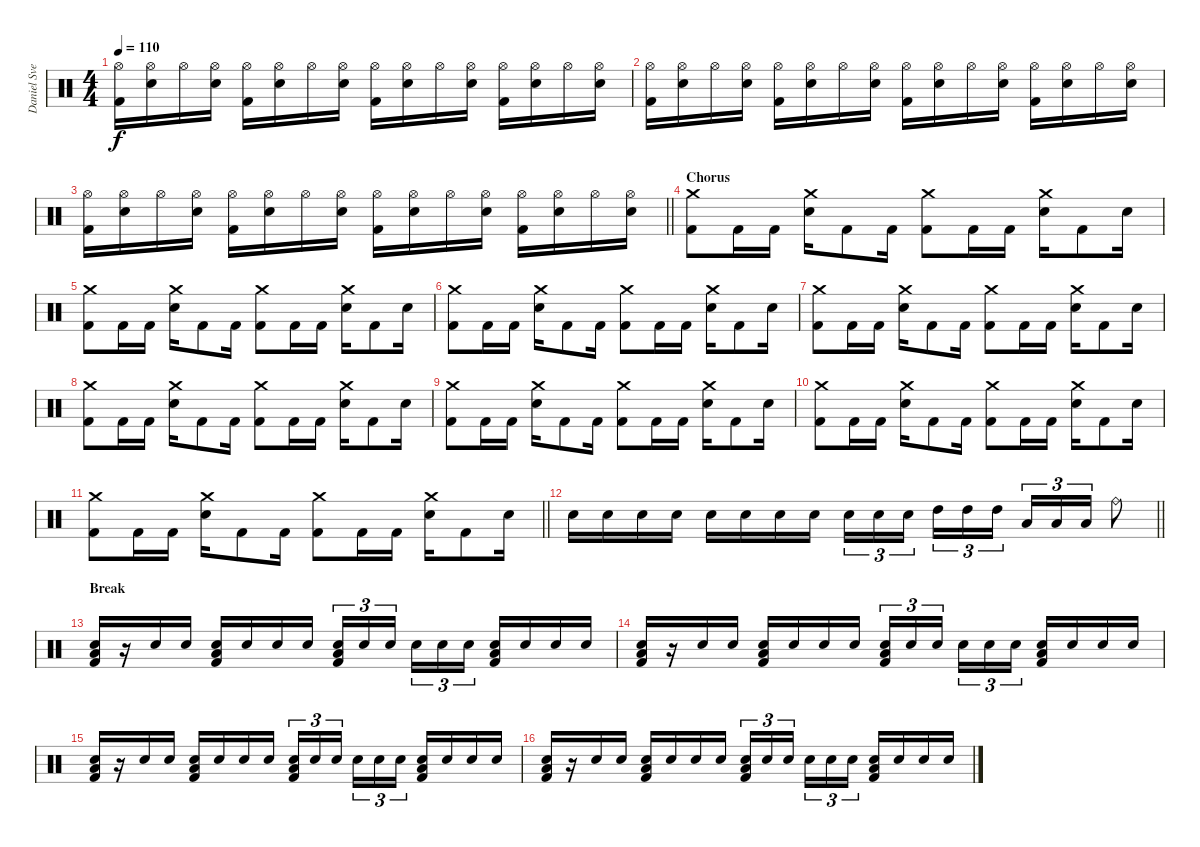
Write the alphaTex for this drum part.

\track ("Daniel Svennson" "Daniel Sve") {instrument percussion}
\staff {score}
\articulation defaults
\ts (4 4)
\tempo 110
\clef neutral
\ks c
("Hi-Hat (open)" "Kick (hit) 2").16{dy f} ("Hi-Hat (open)" "Snare (hit) 2").16 "Hi-Hat (open)".16 ("Hi-Hat (open)" "Snare (hit) 2").16 ("Hi-Hat (open)" "Kick (hit) 2").16 ("Hi-Hat (open)" "Snare (hit) 2").16 "Hi-Hat (open)".16 ("Hi-Hat (open)" "Snare (hit) 2").16 ("Hi-Hat (open)" "Kick (hit) 2").16 ("Hi-Hat (open)" "Snare (hit) 2").16 "Hi-Hat (open)".16 ("Hi-Hat (open)" "Snare (hit) 2").16 ("Hi-Hat (open)" "Kick (hit) 2").16 ("Hi-Hat (open)" "Snare (hit) 2").16 "Hi-Hat (open)".16 ("Hi-Hat (open)" "Snare (hit) 2").16 |
("Hi-Hat (open)" "Kick (hit) 2").16 ("Hi-Hat (open)" "Snare (hit) 2").16 "Hi-Hat (open)".16 ("Hi-Hat (open)" "Snare (hit) 2").16 ("Hi-Hat (open)" "Kick (hit) 2").16 ("Hi-Hat (open)" "Snare (hit) 2").16 "Hi-Hat (open)".16 ("Hi-Hat (open)" "Snare (hit) 2").16 ("Hi-Hat (open)" "Kick (hit) 2").16 ("Hi-Hat (open)" "Snare (hit) 2").16 "Hi-Hat (open)".16 ("Hi-Hat (open)" "Snare (hit) 2").16 ("Hi-Hat (open)" "Kick (hit) 2").16 ("Hi-Hat (open)" "Snare (hit) 2").16 "Hi-Hat (open)".16 ("Hi-Hat (open)" "Snare (hit) 2").16 |
\barLineRight lightlight
("Hi-Hat (open)" "Kick (hit) 2").16 ("Hi-Hat (open)" "Snare (hit) 2").16 "Hi-Hat (open)".16 ("Hi-Hat (open)" "Snare (hit) 2").16 ("Hi-Hat (open)" "Kick (hit) 2").16 ("Hi-Hat (open)" "Snare (hit) 2").16 "Hi-Hat (open)".16 ("Hi-Hat (open)" "Snare (hit) 2").16 ("Hi-Hat (open)" "Kick (hit) 2").16 ("Hi-Hat (open)" "Snare (hit) 2").16 "Hi-Hat (open)".16 ("Hi-Hat (open)" "Snare (hit) 2").16 ("Hi-Hat (open)" "Kick (hit) 2").16 ("Hi-Hat (open)" "Snare (hit) 2").16 "Hi-Hat (open)".16 ("Hi-Hat (open)" "Snare (hit) 2").16 |
\section ("" "Chorus")
("Kick (hit) 2" "Crash medium (hit)").8 "Kick (hit) 2".16 "Kick (hit) 2".16 ("Snare (hit) 2" "Crash medium (hit)").16 "Kick (hit) 2".8 "Kick (hit) 2".16 ("Kick (hit) 2" "Crash medium (hit)").8 "Kick (hit) 2".16 "Kick (hit) 2".16 ("Snare (hit) 2" "Crash medium (hit)").16 "Kick (hit) 2".8 "Snare (hit) 2".16 |
("Kick (hit) 2" "Crash medium (hit)").8 "Kick (hit) 2".16 "Kick (hit) 2".16 ("Snare (hit) 2" "Crash medium (hit)").16 "Kick (hit) 2".8 "Kick (hit) 2".16 ("Kick (hit) 2" "Crash medium (hit)").8 "Kick (hit) 2".16 "Kick (hit) 2".16 ("Snare (hit) 2" "Crash medium (hit)").16 "Kick (hit) 2".8 "Snare (hit) 2".16 |
("Kick (hit) 2" "Crash medium (hit)").8 "Kick (hit) 2".16 "Kick (hit) 2".16 ("Snare (hit) 2" "Crash medium (hit)").16 "Kick (hit) 2".8 "Kick (hit) 2".16 ("Kick (hit) 2" "Crash medium (hit)").8 "Kick (hit) 2".16 "Kick (hit) 2".16 ("Snare (hit) 2" "Crash medium (hit)").16 "Kick (hit) 2".8 "Snare (hit) 2".16 |
("Kick (hit) 2" "Crash medium (hit)").8 "Kick (hit) 2".16 "Kick (hit) 2".16 ("Snare (hit) 2" "Crash medium (hit)").16 "Kick (hit) 2".8 "Kick (hit) 2".16 ("Kick (hit) 2" "Crash medium (hit)").8 "Kick (hit) 2".16 "Kick (hit) 2".16 ("Snare (hit) 2" "Crash medium (hit)").16 "Kick (hit) 2".8 "Snare (hit) 2".16 |
("Kick (hit) 2" "Crash medium (hit)").8 "Kick (hit) 2".16 "Kick (hit) 2".16 ("Snare (hit) 2" "Crash medium (hit)").16 "Kick (hit) 2".8 "Kick (hit) 2".16 ("Kick (hit) 2" "Crash medium (hit)").8 "Kick (hit) 2".16 "Kick (hit) 2".16 ("Snare (hit) 2" "Crash medium (hit)").16 "Kick (hit) 2".8 "Snare (hit) 2".16 |
("Kick (hit) 2" "Crash medium (hit)").8 "Kick (hit) 2".16 "Kick (hit) 2".16 ("Snare (hit) 2" "Crash medium (hit)").16 "Kick (hit) 2".8 "Kick (hit) 2".16 ("Kick (hit) 2" "Crash medium (hit)").8 "Kick (hit) 2".16 "Kick (hit) 2".16 ("Snare (hit) 2" "Crash medium (hit)").16 "Kick (hit) 2".8 "Snare (hit) 2".16 |
("Kick (hit) 2" "Crash medium (hit)").8 "Kick (hit) 2".16 "Kick (hit) 2".16 ("Snare (hit) 2" "Crash medium (hit)").16 "Kick (hit) 2".8 "Kick (hit) 2".16 ("Kick (hit) 2" "Crash medium (hit)").8 "Kick (hit) 2".16 "Kick (hit) 2".16 ("Snare (hit) 2" "Crash medium (hit)").16 "Kick (hit) 2".8 "Snare (hit) 2".16 |
\barLineRight lightlight
("Kick (hit) 2" "Crash medium (hit)").8 "Kick (hit) 2".16 "Kick (hit) 2".16 ("Snare (hit) 2" "Crash medium (hit)").16 "Kick (hit) 2".8 "Kick (hit) 2".16 ("Kick (hit) 2" "Crash medium (hit)").8 "Kick (hit) 2".16 "Kick (hit) 2".16 ("Snare (hit) 2" "Crash medium (hit)").16 "Kick (hit) 2".8 "Snare (hit) 2".16 |
\section ("" "")
\barLineRight lightlight "Snare (hit) 2".16 "Snare (hit) 2".16 "Snare (hit) 2".16 "Snare (hit) 2".16 "Snare (hit) 2".16 "Snare (hit) 2".16 "Snare (hit) 2".16 "Snare (hit) 2".16 "Snare (hit) 2".16{tu (3 2)} "Snare (hit) 2".16{tu (3 2)} "Snare (hit) 2".16{tu (3 2)} "High Tom (hit)".16{tu (3 2)} "High Tom (hit)".16{tu (3 2)} "High Tom (hit)".16{tu (3 2)} "Low Tom (hit)".16{tu (3 2)} "Low Tom (hit)".16{tu (3 2)} "Low Tom (hit)".16{tu (3 2)} "Ride (bell)".8
|
\section ("" "Break")
("Low Floor Tom (hit)" "Snare (hit) 2" "Kick (hit) 2").16 r.16 "Snare (hit) 2".16 "Snare (hit) 2".16 ("Low Floor Tom (hit)" "Snare (hit) 2" "Kick (hit) 2").16 "Snare (hit) 2".16 "Snare (hit) 2".16 "Snare (hit) 2".16 ("Low Floor Tom (hit)" "Snare (hit) 2" "Kick (hit) 2").16{tu (3 2)} "Snare (hit) 2".16{tu (3 2)} "Snare (hit) 2".16{tu (3 2)} "Snare (hit) 2".16{tu (3 2)} "Snare (hit) 2".16{tu (3 2)} "Snare (hit) 2".16{tu (3 2)} ("Low Floor Tom (hit)" "Snare (hit) 2" "Kick (hit) 2").16 "Snare (hit) 2".16 "Snare (hit) 2".16 "Snare (hit) 2".16 |
("Low Floor Tom (hit)" "Snare (hit) 2" "Kick (hit) 2").16 r.16 "Snare (hit) 2".16 "Snare (hit) 2".16 ("Low Floor Tom (hit)" "Snare (hit) 2" "Kick (hit) 2").16 "Snare (hit) 2".16 "Snare (hit) 2".16 "Snare (hit) 2".16 ("Low Floor Tom (hit)" "Snare (hit) 2" "Kick (hit) 2").16{tu (3 2)} "Snare (hit) 2".16{tu (3 2)} "Snare (hit) 2".16{tu (3 2)} "Snare (hit) 2".16{tu (3 2)} "Snare (hit) 2".16{tu (3 2)} "Snare (hit) 2".16{tu (3 2)} ("Low Floor Tom (hit)" "Snare (hit) 2" "Kick (hit) 2").16 "Snare (hit) 2".16 "Snare (hit) 2".16 "Snare (hit) 2".16 |
("Low Floor Tom (hit)" "Snare (hit) 2" "Kick (hit) 2").16 r.16 "Snare (hit) 2".16 "Snare (hit) 2".16 ("Low Floor Tom (hit)" "Snare (hit) 2" "Kick (hit) 2").16 "Snare (hit) 2".16 "Snare (hit) 2".16 "Snare (hit) 2".16 ("Low Floor Tom (hit)" "Snare (hit) 2" "Kick (hit) 2").16{tu (3 2)} "Snare (hit) 2".16{tu (3 2)} "Snare (hit) 2".16{tu (3 2)} "Snare (hit) 2".16{tu (3 2)} "Snare (hit) 2".16{tu (3 2)} "Snare (hit) 2".16{tu (3 2)} ("Low Floor Tom (hit)" "Snare (hit) 2" "Kick (hit) 2").16 "Snare (hit) 2".16 "Snare (hit) 2".16 "Snare (hit) 2".16 |
("Low Floor Tom (hit)" "Snare (hit) 2" "Kick (hit) 2").16 r.16 "Snare (hit) 2".16 "Snare (hit) 2".16 ("Low Floor Tom (hit)" "Snare (hit) 2" "Kick (hit) 2").16 "Snare (hit) 2".16 "Snare (hit) 2".16 "Snare (hit) 2".16 ("Low Floor Tom (hit)" "Snare (hit) 2" "Kick (hit) 2").16{tu (3 2)} "Snare (hit) 2".16{tu (3 2)} "Snare (hit) 2".16{tu (3 2)} "Snare (hit) 2".16{tu (3 2)} "Snare (hit) 2".16{tu (3 2)} "Snare (hit) 2".16{tu (3 2)} ("Low Floor Tom (hit)" "Snare (hit) 2" "Kick (hit) 2").16 "Snare (hit) 2".16 "Snare (hit) 2".16 "Snare (hit) 2".16
